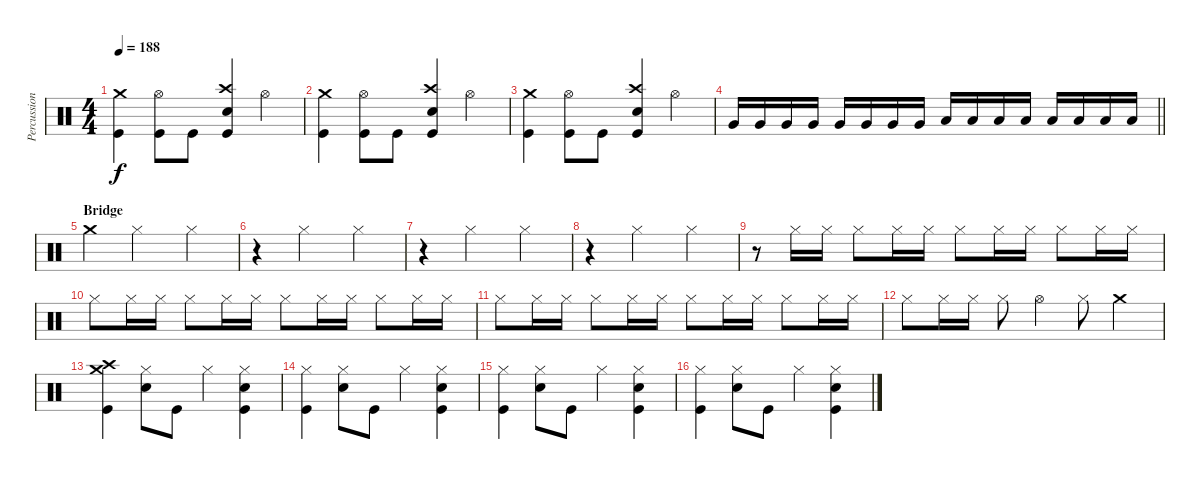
\track ("Percussion" "Percussion") {instrument percussion}
\staff {score}
\articulation defaults
\ts (4 4)
\tempo 188
\clef neutral
\ks c
("Crash medium (hit)" "Kick (hit)").4{dy f} ("Hi-Hat (open)" "Kick (hit)").8 "Kick (hit)".8 ("Crash high (hit)" "Electric Snare (hit)" "Kick (hit)").4 "Hi-Hat (open)".4 |
("Crash medium (hit)" "Kick (hit)").4 ("Hi-Hat (open)" "Kick (hit)").8 "Kick (hit)".8 ("Crash high (hit)" "Electric Snare (hit)" "Kick (hit)").4 "Hi-Hat (open)".4 |
("Crash medium (hit)" "Kick (hit)").4 ("Hi-Hat (open)" "Kick (hit)").8 "Kick (hit)".8 ("Crash high (hit)" "Electric Snare (hit)" "Kick (hit)").4 "Hi-Hat (open)".4 |
\barLineRight lightlight "Very Low Tom (hit)".16 "Very Low Tom (hit)".16 "Very Low Tom (hit)".16 "Very Low Tom (hit)".16 "Very Low Tom (hit)".16 "Very Low Tom (hit)".16 "Very Low Tom (hit)".16 "Very Low Tom (hit)".16 "Low Floor Tom (hit)".16 "Low Floor Tom (hit)".16 "Low Floor Tom (hit)".16 "Low Floor Tom (hit)".16 "Low Floor Tom (hit)".16 "Low Floor Tom (hit)".16 "Low Floor Tom (hit)".16 "Low Floor Tom (hit)".16
|
\section ("" "Bridge")
"Crash medium (hit)".4 "Hi-Hat (closed)".2 "Hi-Hat (closed)".4 |
r.4 "Hi-Hat (closed)".2 "Hi-Hat (closed)".4 |
r.4 "Hi-Hat (closed)".2 "Hi-Hat (closed)".4 |
r.4 "Hi-Hat (closed)".2 "Hi-Hat (closed)".4 |
r.8 "Hi-Hat (closed)".16 "Hi-Hat (closed)".16 "Hi-Hat (closed)".8 "Hi-Hat (closed)".16 "Hi-Hat (closed)".16 "Hi-Hat (closed)".8 "Hi-Hat (closed)".16 "Hi-Hat (closed)".16 "Hi-Hat (closed)".8 "Hi-Hat (closed)".16 "Hi-Hat (closed)".16 |
"Hi-Hat (closed)".8 "Hi-Hat (closed)".16 "Hi-Hat (closed)".16 "Hi-Hat (closed)".8 "Hi-Hat (closed)".16 "Hi-Hat (closed)".16 "Hi-Hat (closed)".8 "Hi-Hat (closed)".16 "Hi-Hat (closed)".16 "Hi-Hat (closed)".8 "Hi-Hat (closed)".16 "Hi-Hat (closed)".16 |
"Hi-Hat (closed)".8 "Hi-Hat (closed)".16 "Hi-Hat (closed)".16 "Hi-Hat (closed)".8 "Hi-Hat (closed)".16 "Hi-Hat (closed)".16 "Hi-Hat (closed)".8 "Hi-Hat (closed)".16 "Hi-Hat (closed)".16 "Hi-Hat (closed)".8 "Hi-Hat (closed)".16 "Hi-Hat (closed)".16 |
"Hi-Hat (closed)".8 "Hi-Hat (closed)".16 "Hi-Hat (closed)".16 "Hi-Hat (closed)".8 "Hi-Hat (open)".4 "Hi-Hat (closed)".8 "Crash medium (hit)".4 |
("Crash high (hit)" "Crash medium (hit)" "Kick (hit)").4 ("Hi-Hat (closed)" "Electric Snare (hit)").8 "Kick (hit)".8 "Hi-Hat (closed)".4 ("Hi-Hat (closed)" "Electric Snare (hit)" "Kick (hit)").4 |
("Hi-Hat (closed)" "Kick (hit)").4 ("Hi-Hat (closed)" "Electric Snare (hit)").8 "Kick (hit)".8 "Hi-Hat (closed)".4 ("Hi-Hat (closed)" "Electric Snare (hit)" "Kick (hit)").4 |
("Hi-Hat (closed)" "Kick (hit)").4 ("Hi-Hat (closed)" "Electric Snare (hit)").8 "Kick (hit)".8 "Hi-Hat (closed)".4 ("Hi-Hat (closed)" "Electric Snare (hit)" "Kick (hit)").4 |
("Hi-Hat (closed)" "Kick (hit)").4 ("Hi-Hat (closed)" "Electric Snare (hit)").8 "Kick (hit)".8 "Hi-Hat (closed)".4 ("Hi-Hat (closed)" "Electric Snare (hit)" "Kick (hit)").4
